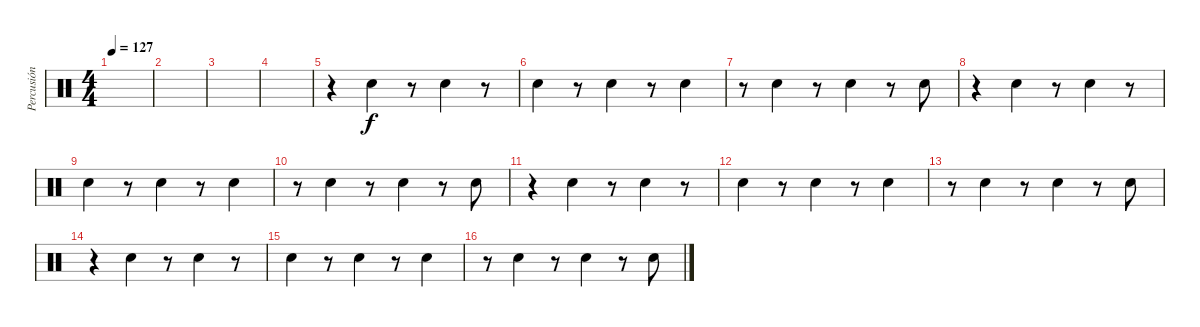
\track ("Percusión" "Percusión") {instrument percussion}
\staff {score}
\articulation defaults
\ts (4 4)
\tempo 127
\clef neutral
\ks c
|
|
|
|
r.4 "Hand Clap (hit)".4 r.8 "Hand Clap (hit)".4 r.8 |
"Hand Clap (hit)".4 r.8 "Hand Clap (hit)".4 r.8 "Hand Clap (hit)".4 |
r.8 "Hand Clap (hit)".4 r.8 "Hand Clap (hit)".4 r.8 "Hand Clap (hit)".8 |
r.4 "Hand Clap (hit)".4 r.8 "Hand Clap (hit)".4 r.8 |
"Hand Clap (hit)".4 r.8 "Hand Clap (hit)".4 r.8 "Hand Clap (hit)".4 |
r.8 "Hand Clap (hit)".4 r.8 "Hand Clap (hit)".4 r.8 "Hand Clap (hit)".8 |
r.4 "Hand Clap (hit)".4 r.8 "Hand Clap (hit)".4 r.8 |
"Hand Clap (hit)".4 r.8 "Hand Clap (hit)".4 r.8 "Hand Clap (hit)".4 |
r.8 "Hand Clap (hit)".4 r.8 "Hand Clap (hit)".4 r.8 "Hand Clap (hit)".8 |
r.4 "Hand Clap (hit)".4 r.8 "Hand Clap (hit)".4 r.8 |
"Hand Clap (hit)".4 r.8 "Hand Clap (hit)".4 r.8 "Hand Clap (hit)".4 |
r.8 "Hand Clap (hit)".4 r.8 "Hand Clap (hit)".4 r.8 "Hand Clap (hit)".8
